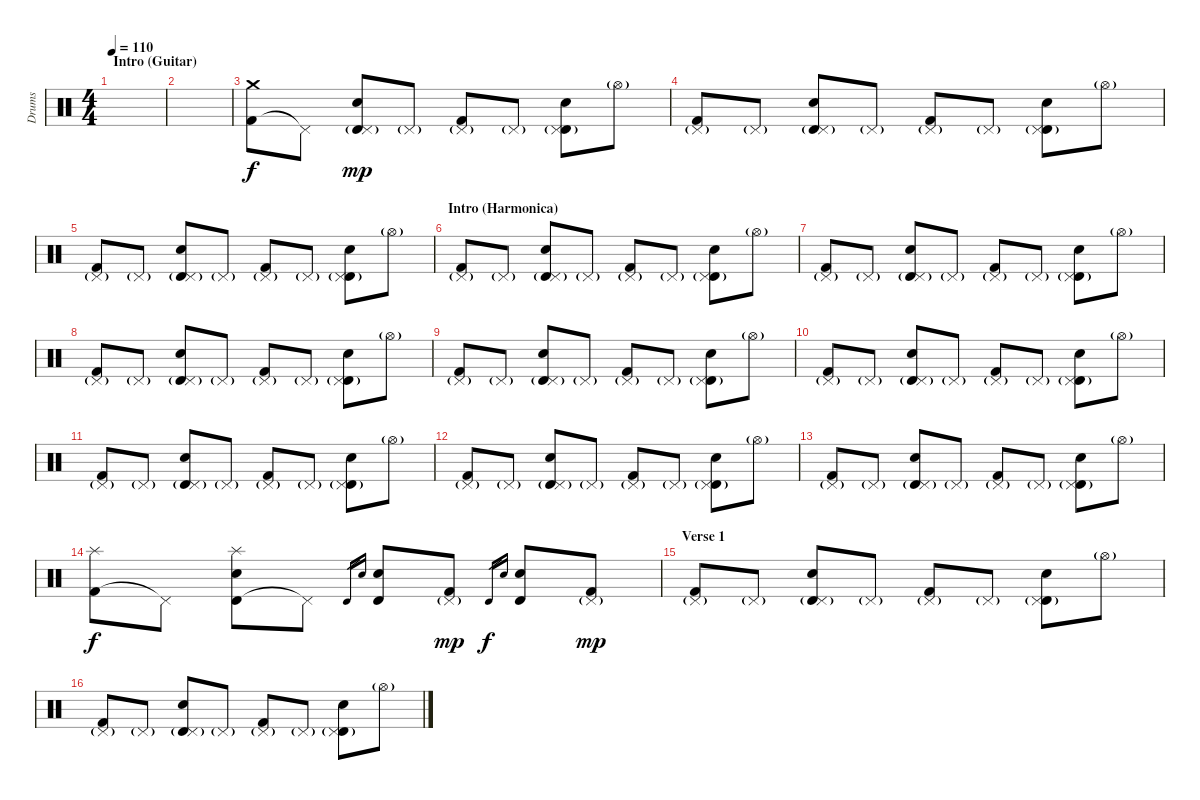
\track ("Drums" "Drums") {instrument percussion}
\staff {score}
\articulation defaults
\ts (4 4)
\section ("" "Intro (Guitar)")
\tempo 110
\clef neutral
\ks c
|
|
("Kick (hit) 2" "Crash medium (hit)").8 "Pedal Hi-Hat (hit)"{t}.8 ("Timbale high (hit)" "Electric Snare (hit)" "Pedal Hi-Hat (hit)"{g}).8{dy mp} "Pedal Hi-Hat (hit)"{g}.8 ("Kick (hit) 2" "Pedal Hi-Hat (hit)"{g}).8 "Pedal Hi-Hat (hit)"{g}.8 ("Timbale high (hit)" "Electric Snare (hit)" "Pedal Hi-Hat (hit)"{g}).8 "Hi-Hat (open)"{g}.8 |
("Kick (hit) 2" "Pedal Hi-Hat (hit)"{g}).8 "Pedal Hi-Hat (hit)"{g}.8 ("Timbale high (hit)" "Electric Snare (hit)" "Pedal Hi-Hat (hit)"{g}).8 "Pedal Hi-Hat (hit)"{g}.8 ("Kick (hit) 2" "Pedal Hi-Hat (hit)"{g}).8 "Pedal Hi-Hat (hit)"{g}.8 ("Timbale high (hit)" "Electric Snare (hit)" "Pedal Hi-Hat (hit)"{g}).8 "Hi-Hat (open)"{g}.8 |
("Kick (hit) 2" "Pedal Hi-Hat (hit)"{g}).8 "Pedal Hi-Hat (hit)"{g}.8 ("Timbale high (hit)" "Electric Snare (hit)" "Pedal Hi-Hat (hit)"{g}).8 "Pedal Hi-Hat (hit)"{g}.8 ("Kick (hit) 2" "Pedal Hi-Hat (hit)"{g}).8 "Pedal Hi-Hat (hit)"{g}.8 ("Timbale high (hit)" "Electric Snare (hit)" "Pedal Hi-Hat (hit)"{g}).8 "Hi-Hat (open)"{g}.8 |
\section ("" "Intro (Harmonica)")
("Kick (hit) 2" "Pedal Hi-Hat (hit)"{g}).8 "Pedal Hi-Hat (hit)"{g}.8 ("Timbale high (hit)" "Electric Snare (hit)" "Pedal Hi-Hat (hit)"{g}).8 "Pedal Hi-Hat (hit)"{g}.8 ("Kick (hit) 2" "Pedal Hi-Hat (hit)"{g}).8 "Pedal Hi-Hat (hit)"{g}.8 ("Timbale high (hit)" "Electric Snare (hit)" "Pedal Hi-Hat (hit)"{g}).8 "Hi-Hat (open)"{g}.8 |
("Kick (hit) 2" "Pedal Hi-Hat (hit)"{g}).8 "Pedal Hi-Hat (hit)"{g}.8 ("Timbale high (hit)" "Electric Snare (hit)" "Pedal Hi-Hat (hit)"{g}).8 "Pedal Hi-Hat (hit)"{g}.8 ("Kick (hit) 2" "Pedal Hi-Hat (hit)"{g}).8 "Pedal Hi-Hat (hit)"{g}.8 ("Timbale high (hit)" "Electric Snare (hit)" "Pedal Hi-Hat (hit)"{g}).8 "Hi-Hat (open)"{g}.8 |
("Kick (hit) 2" "Pedal Hi-Hat (hit)"{g}).8 "Pedal Hi-Hat (hit)"{g}.8 ("Timbale high (hit)" "Electric Snare (hit)" "Pedal Hi-Hat (hit)"{g}).8 "Pedal Hi-Hat (hit)"{g}.8 ("Kick (hit) 2" "Pedal Hi-Hat (hit)"{g}).8 "Pedal Hi-Hat (hit)"{g}.8 ("Timbale high (hit)" "Electric Snare (hit)" "Pedal Hi-Hat (hit)"{g}).8 "Hi-Hat (open)"{g}.8 |
("Kick (hit) 2" "Pedal Hi-Hat (hit)"{g}).8 "Pedal Hi-Hat (hit)"{g}.8 ("Timbale high (hit)" "Electric Snare (hit)" "Pedal Hi-Hat (hit)"{g}).8 "Pedal Hi-Hat (hit)"{g}.8 ("Kick (hit) 2" "Pedal Hi-Hat (hit)"{g}).8 "Pedal Hi-Hat (hit)"{g}.8 ("Timbale high (hit)" "Electric Snare (hit)" "Pedal Hi-Hat (hit)"{g}).8 "Hi-Hat (open)"{g}.8 |
("Kick (hit) 2" "Pedal Hi-Hat (hit)"{g}).8 "Pedal Hi-Hat (hit)"{g}.8 ("Timbale high (hit)" "Electric Snare (hit)" "Pedal Hi-Hat (hit)"{g}).8 "Pedal Hi-Hat (hit)"{g}.8 ("Kick (hit) 2" "Pedal Hi-Hat (hit)"{g}).8 "Pedal Hi-Hat (hit)"{g}.8 ("Timbale high (hit)" "Electric Snare (hit)" "Pedal Hi-Hat (hit)"{g}).8 "Hi-Hat (open)"{g}.8 |
("Kick (hit) 2" "Pedal Hi-Hat (hit)"{g}).8 "Pedal Hi-Hat (hit)"{g}.8 ("Timbale high (hit)" "Electric Snare (hit)" "Pedal Hi-Hat (hit)"{g}).8 "Pedal Hi-Hat (hit)"{g}.8 ("Kick (hit) 2" "Pedal Hi-Hat (hit)"{g}).8 "Pedal Hi-Hat (hit)"{g}.8 ("Timbale high (hit)" "Electric Snare (hit)" "Pedal Hi-Hat (hit)"{g}).8 "Hi-Hat (open)"{g}.8 |
("Kick (hit) 2" "Pedal Hi-Hat (hit)"{g}).8 "Pedal Hi-Hat (hit)"{g}.8 ("Timbale high (hit)" "Electric Snare (hit)" "Pedal Hi-Hat (hit)"{g}).8 "Pedal Hi-Hat (hit)"{g}.8 ("Kick (hit) 2" "Pedal Hi-Hat (hit)"{g}).8 "Pedal Hi-Hat (hit)"{g}.8 ("Timbale high (hit)" "Electric Snare (hit)" "Pedal Hi-Hat (hit)"{g}).8 "Hi-Hat (open)"{g}.8 |
("Kick (hit) 2" "Pedal Hi-Hat (hit)"{g}).8 "Pedal Hi-Hat (hit)"{g}.8 ("Timbale high (hit)" "Electric Snare (hit)" "Pedal Hi-Hat (hit)"{g}).8 "Pedal Hi-Hat (hit)"{g}.8 ("Kick (hit) 2" "Pedal Hi-Hat (hit)"{g}).8 "Pedal Hi-Hat (hit)"{g}.8 ("Timbale high (hit)" "Electric Snare (hit)" "Pedal Hi-Hat (hit)"{g}).8 "Hi-Hat (open)"{g}.8 |
("Kick (hit) 2" "Splash (hit)").8{dy f} "Pedal Hi-Hat (hit)"{t}.8 ("Timbale high (hit)" "Electric Snare (hit)" "Splash (hit)").8 "Pedal Hi-Hat (hit)"{t}.8 "Timbale high (hit)".16{gr} "Electric Snare (hit)".16{gr} ("Timbale high (hit)" "Electric Snare (hit)").8 ("Kick (hit) 2" "Pedal Hi-Hat (hit)"{g}).8{dy mp} "Timbale high (hit)".16{gr dy f} "Electric Snare (hit)".16{gr} ("Timbale high (hit)" "Electric Snare (hit)").8 ("Kick (hit) 2" "Pedal Hi-Hat (hit)"{g}).8{dy mp} |
\section ("" "Verse 1")
("Kick (hit) 2" "Pedal Hi-Hat (hit)"{g}).8 "Pedal Hi-Hat (hit)"{g}.8 ("Timbale high (hit)" "Electric Snare (hit)" "Pedal Hi-Hat (hit)"{g}).8 "Pedal Hi-Hat (hit)"{g}.8 ("Kick (hit) 2" "Pedal Hi-Hat (hit)"{g}).8 "Pedal Hi-Hat (hit)"{g}.8 ("Timbale high (hit)" "Electric Snare (hit)" "Pedal Hi-Hat (hit)"{g}).8 "Hi-Hat (open)"{g}.8 |
("Kick (hit) 2" "Pedal Hi-Hat (hit)"{g}).8 "Pedal Hi-Hat (hit)"{g}.8 ("Timbale high (hit)" "Electric Snare (hit)" "Pedal Hi-Hat (hit)"{g}).8 "Pedal Hi-Hat (hit)"{g}.8 ("Kick (hit) 2" "Pedal Hi-Hat (hit)"{g}).8 "Pedal Hi-Hat (hit)"{g}.8 ("Timbale high (hit)" "Electric Snare (hit)" "Pedal Hi-Hat (hit)"{g}).8 "Hi-Hat (open)"{g}.8
